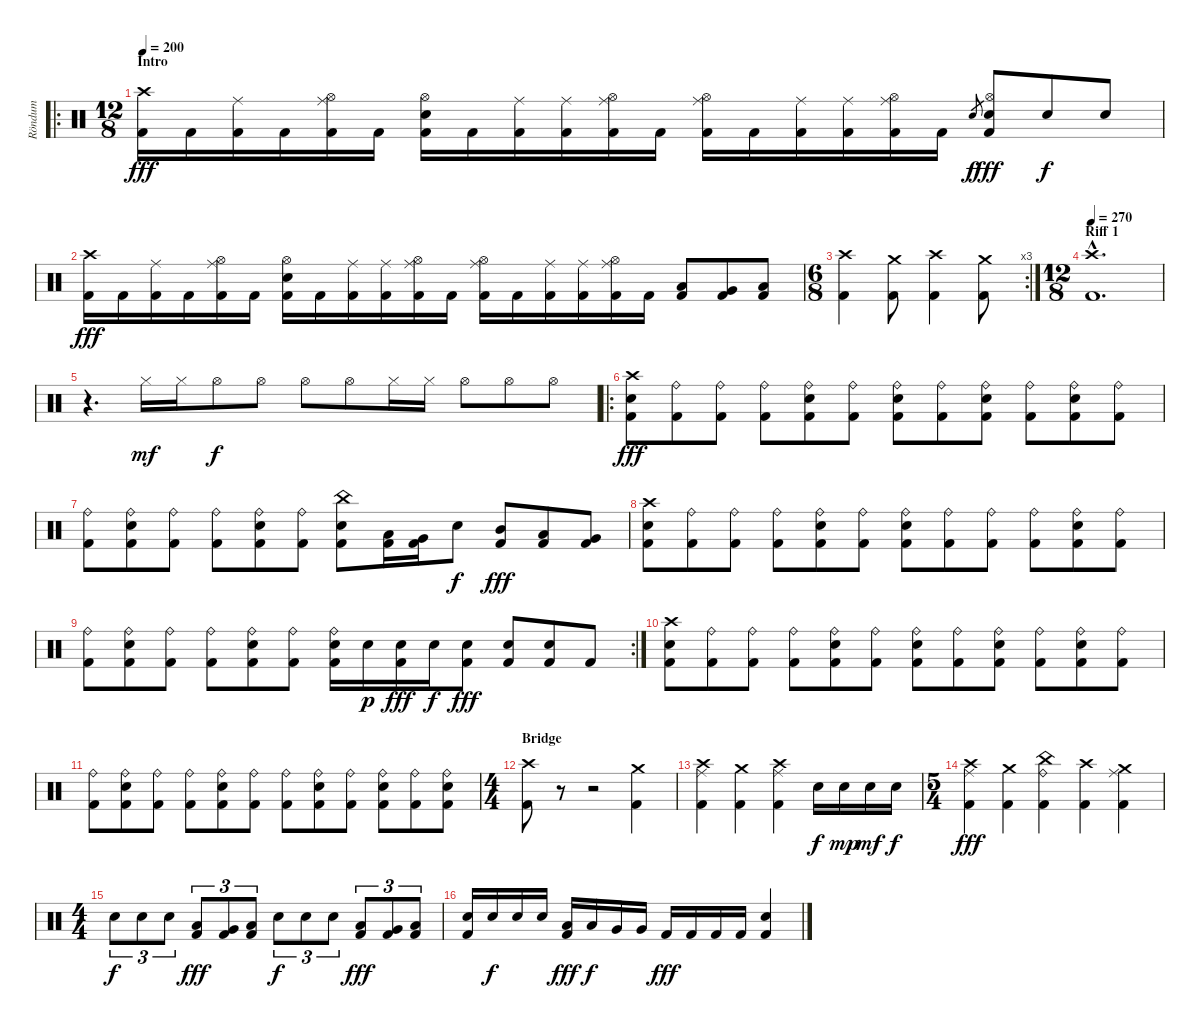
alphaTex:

\track ("Röndum" "Röndum") {instrument percussion}
\staff {score}
\articulation defaults
\ro
\ts (12 8)
\section ("" "Intro")
\tempo 200
\clef neutral
\ks c
("Crash high (hit)" "Kick (hit) 2").16{dy fff} "Kick (hit) 2".16 ("Ride (middle)" "Kick (hit) 2").16 "Kick (hit) 2".16 ("Hi-Hat (open)" "Ride (middle)" "Kick (hit) 2").16 "Kick (hit) 2".16 ("Hi-Hat (open)" "Snare (hit) 2" "Kick (hit) 2").16 "Kick (hit) 2".16 ("Ride (middle)" "Kick (hit) 2").16 ("Ride (middle)" "Kick (hit) 2").16 ("Hi-Hat (open)" "Ride (middle)" "Kick (hit) 2").16 "Kick (hit) 2".16 ("Hi-Hat (open)" "Ride (middle)" "Kick (hit) 2").16 "Kick (hit) 2".16 ("Ride (middle)" "Kick (hit) 2").16 ("Ride (middle)" "Kick (hit) 2").16 ("Hi-Hat (open)" "Ride (middle)" "Kick (hit) 2").16 "Kick (hit) 2".16 "Snare (hit) 2".8{gr dy f} ("Hi-Hat (open)" "Snare (hit) 2" "Kick (hit) 2").8{dy fff} "Snare (hit) 2".8{dy f} "Snare (hit) 2".8 |
("Crash high (hit)" "Kick (hit) 2").16{dy fff} "Kick (hit) 2".16 ("Ride (middle)" "Kick (hit) 2").16 "Kick (hit) 2".16 ("Hi-Hat (open)" "Ride (middle)" "Kick (hit) 2").16 "Kick (hit) 2".16 ("Hi-Hat (open)" "Snare (hit) 2" "Kick (hit) 2").16 "Kick (hit) 2".16 ("Ride (middle)" "Kick (hit) 2").16 ("Ride (middle)" "Kick (hit) 2").16 ("Hi-Hat (open)" "Ride (middle)" "Kick (hit) 2").16 "Kick (hit) 2".16 ("Hi-Hat (open)" "Ride (middle)" "Kick (hit) 2").16 "Kick (hit) 2".16 ("Ride (middle)" "Kick (hit) 2").16 ("Ride (middle)" "Kick (hit) 2").16 ("Hi-Hat (open)" "Ride (middle)" "Kick (hit) 2").16 "Kick (hit) 2".16 ("Low Tom (hit)" "Kick (hit) 2").8 ("Very Low Tom (hit)" "Kick (hit) 2").8 ("Low Floor Tom (hit)" "Kick (hit) 2").8 |
\rc 3
\ts (6 8)
("Crash high (hit)" "Kick (hit) 2").4 ("Crash medium (hit)" "Kick (hit) 2").8 ("Crash high (hit)" "Kick (hit) 2").4 ("Crash medium (hit)" "Kick (hit) 2").8 |
\ts (12 8)
\section ("" "Riff 1")
\tempo 270
("Crash high (hit)"{hac} "Kick (hit) 2"{hac}).1{d} |
r.4{d} "Hi-Hat (closed)".16{dy mf} "Hi-Hat (closed)".16 "Hi-Hat (open)".8{dy f} "Hi-Hat (open)".8 "Hi-Hat (open)".8 "Hi-Hat (open)".8 "Hi-Hat (closed)".16 "Hi-Hat (closed)".16 "Hi-Hat (open)".8 "Hi-Hat (open)".8 "Hi-Hat (open)".8 |
\ro
("Crash high (hit)" "Snare (hit) 2" "Kick (hit) 2").8{dy fff} ("Ride (bell)" "Kick (hit) 2").8 ("Ride (bell)" "Kick (hit) 2").8 ("Ride (bell)" "Kick (hit) 2").8 ("Ride (bell)" "Snare (hit) 2" "Kick (hit) 2").8 ("Ride (bell)" "Kick (hit) 2").8 ("Ride (bell)" "Snare (hit) 2" "Kick (hit) 2").8 ("Ride (bell)" "Kick (hit) 2").8 ("Ride (bell)" "Snare (hit) 2" "Kick (hit) 2").8 ("Ride (bell)" "Kick (hit) 2").8 ("Ride (bell)" "Snare (hit) 2" "Kick (hit) 2").8 ("Ride (bell)" "Kick (hit) 2").8 |
("Ride (bell)" "Kick (hit) 2").8 ("Ride (bell)" "Snare (hit) 2" "Kick (hit) 2").8 ("Ride (bell)" "Kick (hit) 2").8 ("Ride (bell)" "Kick (hit) 2").8 ("Ride (bell)" "Snare (hit) 2" "Kick (hit) 2").8 ("Ride (bell)" "Kick (hit) 2").8 ("China (hit)" "Snare (hit) 2" "Kick (hit) 2").8 ("Low Tom (hit)" "Kick (hit) 2").16 ("Very Low Tom (hit)" "Kick (hit) 2").16 "Snare (hit) 2".8{dy f} ("Mid Tom (hit)" "Kick (hit) 2").8{dy fff} ("Low Tom (hit)" "Kick (hit) 2").8 ("Very Low Tom (hit)" "Kick (hit) 2").8 |
("Crash high (hit)" "Snare (hit) 2" "Kick (hit) 2").8 ("Ride (bell)" "Kick (hit) 2").8 ("Ride (bell)" "Kick (hit) 2").8 ("Ride (bell)" "Kick (hit) 2").8 ("Ride (bell)" "Snare (hit) 2" "Kick (hit) 2").8 ("Ride (bell)" "Kick (hit) 2").8 ("Ride (bell)" "Snare (hit) 2" "Kick (hit) 2").8 ("Ride (bell)" "Kick (hit) 2").8 ("Ride (bell)" "Kick (hit) 2").8 ("Ride (bell)" "Kick (hit) 2").8 ("Ride (bell)" "Snare (hit) 2" "Kick (hit) 2").8 ("Ride (bell)" "Kick (hit) 2").8 |
\rc 2
("Ride (bell)" "Kick (hit) 2").8 ("Ride (bell)" "Snare (hit) 2" "Kick (hit) 2").8 ("Ride (bell)" "Kick (hit) 2").8 ("Ride (bell)" "Kick (hit) 2").8 ("Ride (bell)" "Snare (hit) 2" "Kick (hit) 2").8 ("Ride (bell)" "Kick (hit) 2").8 ("Ride (bell)" "Snare (hit) 2" "Kick (hit) 2").16 "Snare (hit) 2".16{dy p} ("Snare (hit) 2" "Kick (hit) 2").16{dy fff} "Snare (hit) 2".16{dy f} ("Snare (hit) 2" "Kick (hit) 2").8{dy fff} ("Snare (hit) 2" "Kick (hit) 2").8 ("Snare (hit) 2" "Kick (hit) 2").8 "Kick (hit) 2".8 |
("Crash high (hit)" "Snare (hit) 2" "Kick (hit) 2").8 ("Ride (bell)" "Kick (hit) 2").8 ("Ride (bell)" "Kick (hit) 2").8 ("Ride (bell)" "Kick (hit) 2").8 ("Ride (bell)" "Snare (hit) 2" "Kick (hit) 2").8 ("Ride (bell)" "Kick (hit) 2").8 ("Ride (bell)" "Snare (hit) 2" "Kick (hit) 2").8 ("Ride (bell)" "Kick (hit) 2").8 ("Ride (bell)" "Snare (hit) 2" "Kick (hit) 2").8 ("Ride (bell)" "Kick (hit) 2").8 ("Ride (bell)" "Snare (hit) 2" "Kick (hit) 2").8 ("Ride (bell)" "Kick (hit) 2").8 |
("Ride (bell)" "Kick (hit) 2").8 ("Ride (bell)" "Snare (hit) 2" "Kick (hit) 2").8 ("Ride (bell)" "Kick (hit) 2").8 ("Ride (bell)" "Kick (hit) 2").8 ("Ride (bell)" "Snare (hit) 2" "Kick (hit) 2").8 ("Ride (bell)" "Kick (hit) 2").8 ("Ride (bell)" "Kick (hit) 2").8 ("Ride (bell)" "Snare (hit) 2" "Kick (hit) 2").8 ("Ride (bell)" "Kick (hit) 2").8 ("Ride (bell)" "Snare (hit) 2" "Kick (hit) 2").8 ("Ride (bell)" "Kick (hit) 2").8 ("Ride (bell)" "Snare (hit) 2" "Kick (hit) 2").8 |
\ts (4 4)
\section ("" "Bridge")
("Crash high (hit)" "Kick (hit) 2").8 r.8{volume 0} r.2 ("Crash medium (hit)" "Kick (hit) 2").4{volume 14} |
("Crash high (hit)" "Ride (middle)" "Kick (hit) 2").4 ("Crash medium (hit)" "Kick (hit) 2").4 ("Crash high (hit)" "Ride (middle)" "Kick (hit) 2").4 "Snare (hit) 2".16{dy f} "Snare (hit) 2".16{dy mp} "Snare (hit) 2".16{dy mf} "Snare (hit) 2".16{dy f} |
\ts (5 4)
("Crash high (hit)" "Ride (middle)" "Kick (hit) 2").4{dy fff} ("Crash medium (hit)" "Kick (hit) 2").4 ("China (hit)" "Ride (bell)" "Kick (hit) 2").4 ("Crash high (hit)" "Kick (hit) 2").4 ("Crash medium (hit)" "Ride (middle)" "Kick (hit) 2").4 |
\ts (4 4)
"Snare (hit) 2".8{tu (3 2) dy f} "Snare (hit) 2".8{tu (3 2)} "Snare (hit) 2".8{tu (3 2)} ("Low Tom (hit)" "Kick (hit) 2").8{tu (3 2) dy fff} ("Very Low Tom (hit)" "Kick (hit) 2").8{tu (3 2)} ("Low Floor Tom (hit)" "Kick (hit) 2").8{tu (3 2)} "Snare (hit) 2".8{tu (3 2) dy f} "Snare (hit) 2".8{tu (3 2)} "Snare (hit) 2".8{tu (3 2)} ("Low Tom (hit)" "Kick (hit) 2").8{tu (3 2) dy fff} ("Very Low Tom (hit)" "Kick (hit) 2").8{tu (3 2)} ("Low Floor Tom (hit)" "Kick (hit) 2").8{tu (3 2)} |
("Snare (hit) 2" "Kick (hit) 2").16 "Snare (hit) 2".16{dy f} "Snare (hit) 2".16 "Snare (hit) 2".16 ("Low Tom (hit)" "Kick (hit) 2").16{dy fff} "Low Tom (hit)".16{dy f} "Very Low Tom (hit)".16 "Very Low Tom (hit)".16 "Kick (hit) 2".16{dy fff} "Kick (hit) 2".16 "Kick (hit) 2".16 "Kick (hit) 2".16 ("Snare (hit) 2" "Kick (hit) 2").4
